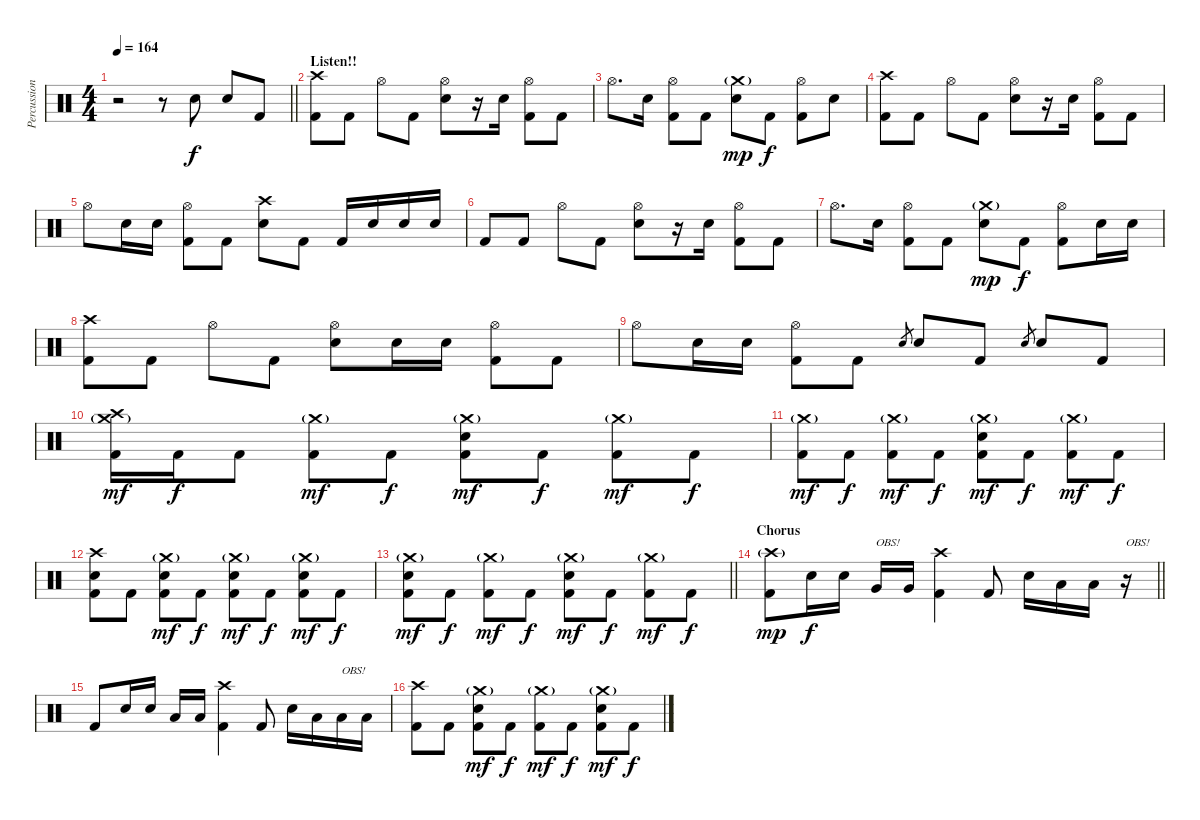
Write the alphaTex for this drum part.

\track ("Percussion - Michael Ambrose" "Percussion") {instrument percussion}
\staff {score}
\articulation defaults
\ts (4 4)
\tempo 164
\clef neutral
\barLineRight lightlight
\ks c
r.2{dy mp} r.8 "Electric Snare (hit)".8{dy f} "Electric Snare (hit)".8 "Kick (hit) 2".8 |
\section ("" "Listen!!")
("Crash high (hit)" "Kick (hit) 2").8 "Kick (hit) 2".8 "Hi-Hat (open)".8 "Kick (hit) 2".8 ("Hi-Hat (open)" "Electric Snare (hit)").8 r.16 "Electric Snare (hit)".16 ("Hi-Hat (open)" "Kick (hit) 2").8 "Kick (hit) 2".8 |
"Hi-Hat (open)".8{d} "Electric Snare (hit)".16 ("Hi-Hat (open)" "Kick (hit) 2").8 "Kick (hit) 2".8 ("Crash medium (hit)"{g} "Electric Snare (hit)").8{dy mp} "Kick (hit) 2".8{dy f} ("Hi-Hat (open)" "Kick (hit) 2").8 "Electric Snare (hit)".8 |
("Crash high (hit)" "Kick (hit) 2").8 "Kick (hit) 2".8 "Hi-Hat (open)".8 "Kick (hit) 2".8 ("Hi-Hat (open)" "Electric Snare (hit)").8 r.16 "Electric Snare (hit)".16 ("Hi-Hat (open)" "Kick (hit) 2").8 "Kick (hit) 2".8 |
"Hi-Hat (open)".8 "Electric Snare (hit)".16 "Electric Snare (hit)".16 ("Hi-Hat (open)" "Kick (hit) 2").8 "Kick (hit) 2".8 ("Crash high (hit)" "Electric Snare (hit)").8 "Kick (hit) 2".8 "Kick (hit) 2".16 "Electric Snare (hit)".16 "Electric Snare (hit)".16 "Electric Snare (hit)".16 |
"Kick (hit) 2".8 "Kick (hit) 2".8 "Hi-Hat (open)".8 "Kick (hit) 2".8 ("Hi-Hat (open)" "Electric Snare (hit)").8 r.16 "Electric Snare (hit)".16 ("Hi-Hat (open)" "Kick (hit) 2").8 "Kick (hit) 2".8 |
"Hi-Hat (open)".8{d} "Electric Snare (hit)".16 ("Hi-Hat (open)" "Kick (hit) 2").8 "Kick (hit) 2".8 ("Crash medium (hit)"{g} "Electric Snare (hit)").8{dy mp} "Kick (hit) 2".8{dy f} ("Hi-Hat (open)" "Kick (hit) 2").8 "Electric Snare (hit)".16 "Electric Snare (hit)".16 |
("Crash high (hit)" "Kick (hit) 2").8 "Kick (hit) 2".8 "Hi-Hat (open)".8 "Kick (hit) 2".8 ("Hi-Hat (open)" "Electric Snare (hit)").8 "Electric Snare (hit)".16 "Electric Snare (hit)".16 ("Hi-Hat (open)" "Kick (hit) 2").8 "Kick (hit) 2".8 |
"Hi-Hat (open)".8 "Electric Snare (hit)".16 "Electric Snare (hit)".16 ("Hi-Hat (open)" "Kick (hit) 2").8 "Kick (hit) 2".8 "Electric Snare (hit)".8{gr} "Electric Snare (hit)".8 "Kick (hit) 2".8 "Electric Snare (hit)".8{gr} "Electric Snare (hit)".8 "Kick (hit) 2".8 |
("Crash high (hit)" "Crash medium (hit)"{g} "Kick (hit) 2").16{dy mf} "Kick (hit) 2".16{dy f} "Kick (hit) 2".8 ("Crash medium (hit)"{g} "Kick (hit) 2").8{dy mf} "Kick (hit) 2".8{dy f} ("Crash medium (hit)"{g} "Electric Snare (hit)" "Kick (hit) 2").8{dy mf} "Kick (hit) 2".8{dy f} ("Crash medium (hit)"{g} "Kick (hit) 2").8{dy mf} "Kick (hit) 2".8{dy f} |
("Crash medium (hit)"{g} "Kick (hit) 2").8{dy mf} "Kick (hit) 2".8{dy f} ("Crash medium (hit)"{g} "Kick (hit) 2").8{dy mf} "Kick (hit) 2".8{dy f} ("Crash medium (hit)"{g} "Electric Snare (hit)" "Kick (hit) 2").8{dy mf} "Kick (hit) 2".8{dy f} ("Crash medium (hit)"{g} "Kick (hit) 2").8{dy mf} "Kick (hit) 2".8{dy f} |
("Crash high (hit)" "Electric Snare (hit)" "Kick (hit) 2").8 "Kick (hit) 2".8 ("Crash medium (hit)"{g} "Electric Snare (hit)" "Kick (hit) 2").8{dy mf} "Kick (hit) 2".8{dy f} ("Crash medium (hit)"{g} "Electric Snare (hit)" "Kick (hit) 2").8{dy mf} "Kick (hit) 2".8{dy f} ("Crash medium (hit)"{g} "Electric Snare (hit)" "Kick (hit) 2").8{dy mf} "Kick (hit) 2".8{dy f} |
\barLineRight lightlight
("Crash medium (hit)"{g} "Electric Snare (hit)" "Kick (hit) 2").8{dy mf} "Kick (hit) 2".8{dy f} ("Crash medium (hit)"{g} "Kick (hit) 2").8{dy mf} "Kick (hit) 2".8{dy f} ("Crash medium (hit)"{g} "Electric Snare (hit)" "Kick (hit) 2").8{dy mf} "Kick (hit) 2".8{dy f} ("Crash medium (hit)"{g} "Kick (hit) 2").8{dy mf} "Kick (hit) 2".8{dy f} |
\section ("" "Chorus")
\barLineRight lightlight
("Crash high (hit)"{g} "Kick (hit) 2").8{dy mp} "Electric Snare (hit)".16{dy f} "Electric Snare (hit)".16 "Very Low Tom (hit)".16{txt "OBS!"} "Very Low Tom (hit)".16 ("Crash high (hit)" "Kick (hit) 2").4 "Kick (hit) 2".8 "Electric Snare (hit)".16 "Low Tom (hit)".16 "Low Tom (hit)".16 r.16{txt "OBS!"} |
"Kick (hit) 2".8 "Electric Snare (hit)".16 "Electric Snare (hit)".16 "Low Tom (hit)".16 "Low Tom (hit)".16 ("Crash high (hit)" "Kick (hit) 2").4 "Kick (hit) 2".8 "Electric Snare (hit)".16 "Low Tom (hit)".16 "Low Floor Tom (hit)".16{txt "OBS!"} "Low Floor Tom (hit)".16 |
("Crash high (hit)" "Kick (hit) 2").8 "Kick (hit) 2".8 ("Crash medium (hit)"{g} "Electric Snare (hit)" "Kick (hit) 2").8{dy mf} "Kick (hit) 2".8{dy f} ("Crash medium (hit)"{g} "Kick (hit) 2").8{dy mf} "Kick (hit) 2".8{dy f} ("Crash medium (hit)"{g} "Electric Snare (hit)" "Kick (hit) 2").8{dy mf} "Kick (hit) 2".8{dy f}
